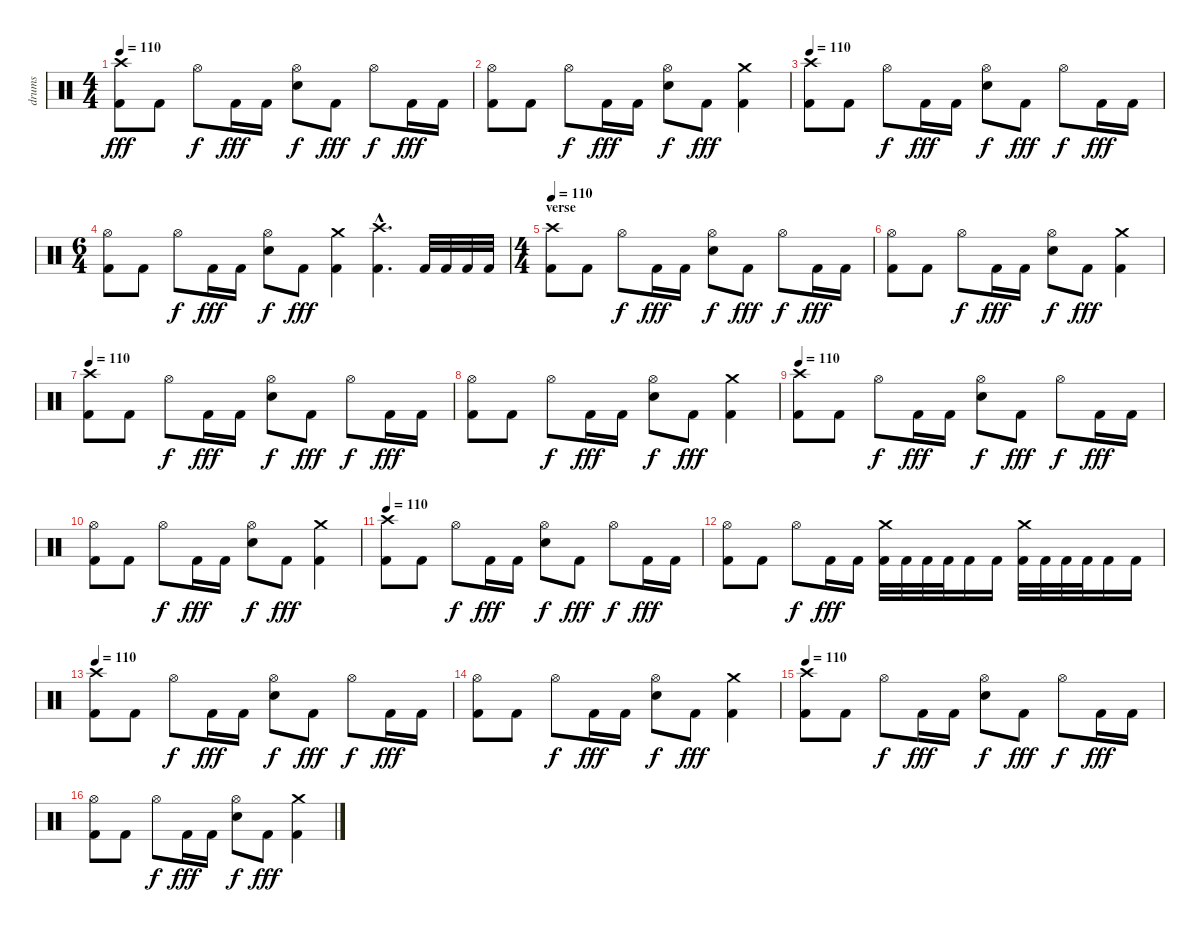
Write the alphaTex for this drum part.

\track ("drums" "drums") {instrument percussion}
\staff {score}
\articulation defaults
\ts (4 4)
\tempo 110
\clef neutral
\ks c
("Crash high (hit)" "Kick (hit) 2").8{dy fff} "Kick (hit) 2".8 "Hi-Hat (open)".8{dy f} "Kick (hit) 2".16{dy fff} "Kick (hit) 2".16 ("Hi-Hat (open)" "Snare (hit) 2").8{dy f} "Kick (hit) 2".8{dy fff} "Hi-Hat (open)".8{dy f} "Kick (hit) 2".16{dy fff} "Kick (hit) 2".16 |
("Hi-Hat (open)" "Kick (hit) 2").8 "Kick (hit) 2".8 "Hi-Hat (open)".8{dy f} "Kick (hit) 2".16{dy fff} "Kick (hit) 2".16 ("Hi-Hat (open)" "Snare (hit) 2").8{dy f} "Kick (hit) 2".8{dy fff} ("Crash medium (hit)" "Kick (hit) 2").4 |
\tempo 110
("Crash high (hit)" "Kick (hit) 2").8 "Kick (hit) 2".8 "Hi-Hat (open)".8{dy f} "Kick (hit) 2".16{dy fff} "Kick (hit) 2".16 ("Hi-Hat (open)" "Snare (hit) 2").8{dy f} "Kick (hit) 2".8{dy fff} "Hi-Hat (open)".8{dy f} "Kick (hit) 2".16{dy fff} "Kick (hit) 2".16 |
\ts (6 4)
("Hi-Hat (open)" "Kick (hit) 2").8 "Kick (hit) 2".8 "Hi-Hat (open)".8{dy f} "Kick (hit) 2".16{dy fff} "Kick (hit) 2".16 ("Hi-Hat (open)" "Snare (hit) 2").8{dy f} "Kick (hit) 2".8{dy fff} ("Crash medium (hit)" "Kick (hit) 2").4 ("Crash high (hit)"{hac} "Kick (hit) 2"{hac}).4{d} "Kick (hit) 2".32 "Kick (hit) 2".32 "Kick (hit) 2".32 "Kick (hit) 2".32 |
\ts (4 4)
\section ("" "verse")
\tempo 110
("Crash high (hit)" "Kick (hit) 2").8 "Kick (hit) 2".8 "Hi-Hat (open)".8{dy f} "Kick (hit) 2".16{dy fff} "Kick (hit) 2".16 ("Hi-Hat (open)" "Snare (hit) 2").8{dy f} "Kick (hit) 2".8{dy fff} "Hi-Hat (open)".8{dy f} "Kick (hit) 2".16{dy fff} "Kick (hit) 2".16 |
("Hi-Hat (open)" "Kick (hit) 2").8 "Kick (hit) 2".8 "Hi-Hat (open)".8{dy f} "Kick (hit) 2".16{dy fff} "Kick (hit) 2".16 ("Hi-Hat (open)" "Snare (hit) 2").8{dy f} "Kick (hit) 2".8{dy fff} ("Crash medium (hit)" "Kick (hit) 2").4 |
\tempo 110
("Crash high (hit)" "Kick (hit) 2").8 "Kick (hit) 2".8 "Hi-Hat (open)".8{dy f} "Kick (hit) 2".16{dy fff} "Kick (hit) 2".16 ("Hi-Hat (open)" "Snare (hit) 2").8{dy f} "Kick (hit) 2".8{dy fff} "Hi-Hat (open)".8{dy f} "Kick (hit) 2".16{dy fff} "Kick (hit) 2".16 |
("Hi-Hat (open)" "Kick (hit) 2").8 "Kick (hit) 2".8 "Hi-Hat (open)".8{dy f} "Kick (hit) 2".16{dy fff} "Kick (hit) 2".16 ("Hi-Hat (open)" "Snare (hit) 2").8{dy f} "Kick (hit) 2".8{dy fff} ("Crash medium (hit)" "Kick (hit) 2").4 |
\tempo 110
("Crash high (hit)" "Kick (hit) 2").8 "Kick (hit) 2".8 "Hi-Hat (open)".8{dy f} "Kick (hit) 2".16{dy fff} "Kick (hit) 2".16 ("Hi-Hat (open)" "Snare (hit) 2").8{dy f} "Kick (hit) 2".8{dy fff} "Hi-Hat (open)".8{dy f} "Kick (hit) 2".16{dy fff} "Kick (hit) 2".16 |
("Hi-Hat (open)" "Kick (hit) 2").8 "Kick (hit) 2".8 "Hi-Hat (open)".8{dy f} "Kick (hit) 2".16{dy fff} "Kick (hit) 2".16 ("Hi-Hat (open)" "Snare (hit) 2").8{dy f} "Kick (hit) 2".8{dy fff} ("Crash medium (hit)" "Kick (hit) 2").4 |
\tempo 110
("Crash high (hit)" "Kick (hit) 2").8 "Kick (hit) 2".8 "Hi-Hat (open)".8{dy f} "Kick (hit) 2".16{dy fff} "Kick (hit) 2".16 ("Hi-Hat (open)" "Snare (hit) 2").8{dy f} "Kick (hit) 2".8{dy fff} "Hi-Hat (open)".8{dy f} "Kick (hit) 2".16{dy fff} "Kick (hit) 2".16 |
("Hi-Hat (open)" "Kick (hit) 2").8 "Kick (hit) 2".8 "Hi-Hat (open)".8{dy f} "Kick (hit) 2".16{dy fff} "Kick (hit) 2".16 ("Crash medium (hit)" "Kick (hit) 2").32 "Kick (hit) 2".32 "Kick (hit) 2".32 "Kick (hit) 2".32 "Kick (hit) 2".16 "Kick (hit) 2".16 ("Crash medium (hit)" "Kick (hit) 2").32 "Kick (hit) 2".32 "Kick (hit) 2".32 "Kick (hit) 2".32 "Kick (hit) 2".16 "Kick (hit) 2".16 |
\tempo 110
("Crash high (hit)" "Kick (hit) 2").8 "Kick (hit) 2".8 "Hi-Hat (open)".8{dy f} "Kick (hit) 2".16{dy fff} "Kick (hit) 2".16 ("Hi-Hat (open)" "Snare (hit) 2").8{dy f} "Kick (hit) 2".8{dy fff} "Hi-Hat (open)".8{dy f} "Kick (hit) 2".16{dy fff} "Kick (hit) 2".16 |
("Hi-Hat (open)" "Kick (hit) 2").8 "Kick (hit) 2".8 "Hi-Hat (open)".8{dy f} "Kick (hit) 2".16{dy fff} "Kick (hit) 2".16 ("Hi-Hat (open)" "Snare (hit) 2").8{dy f} "Kick (hit) 2".8{dy fff} ("Crash medium (hit)" "Kick (hit) 2").4 |
\tempo 110
("Crash high (hit)" "Kick (hit) 2").8 "Kick (hit) 2".8 "Hi-Hat (open)".8{dy f} "Kick (hit) 2".16{dy fff} "Kick (hit) 2".16 ("Hi-Hat (open)" "Snare (hit) 2").8{dy f} "Kick (hit) 2".8{dy fff} "Hi-Hat (open)".8{dy f} "Kick (hit) 2".16{dy fff} "Kick (hit) 2".16 |
("Hi-Hat (open)" "Kick (hit) 2").8 "Kick (hit) 2".8 "Hi-Hat (open)".8{dy f} "Kick (hit) 2".16{dy fff} "Kick (hit) 2".16 ("Hi-Hat (open)" "Snare (hit) 2").8{dy f} "Kick (hit) 2".8{dy fff} ("Crash medium (hit)" "Kick (hit) 2").4
